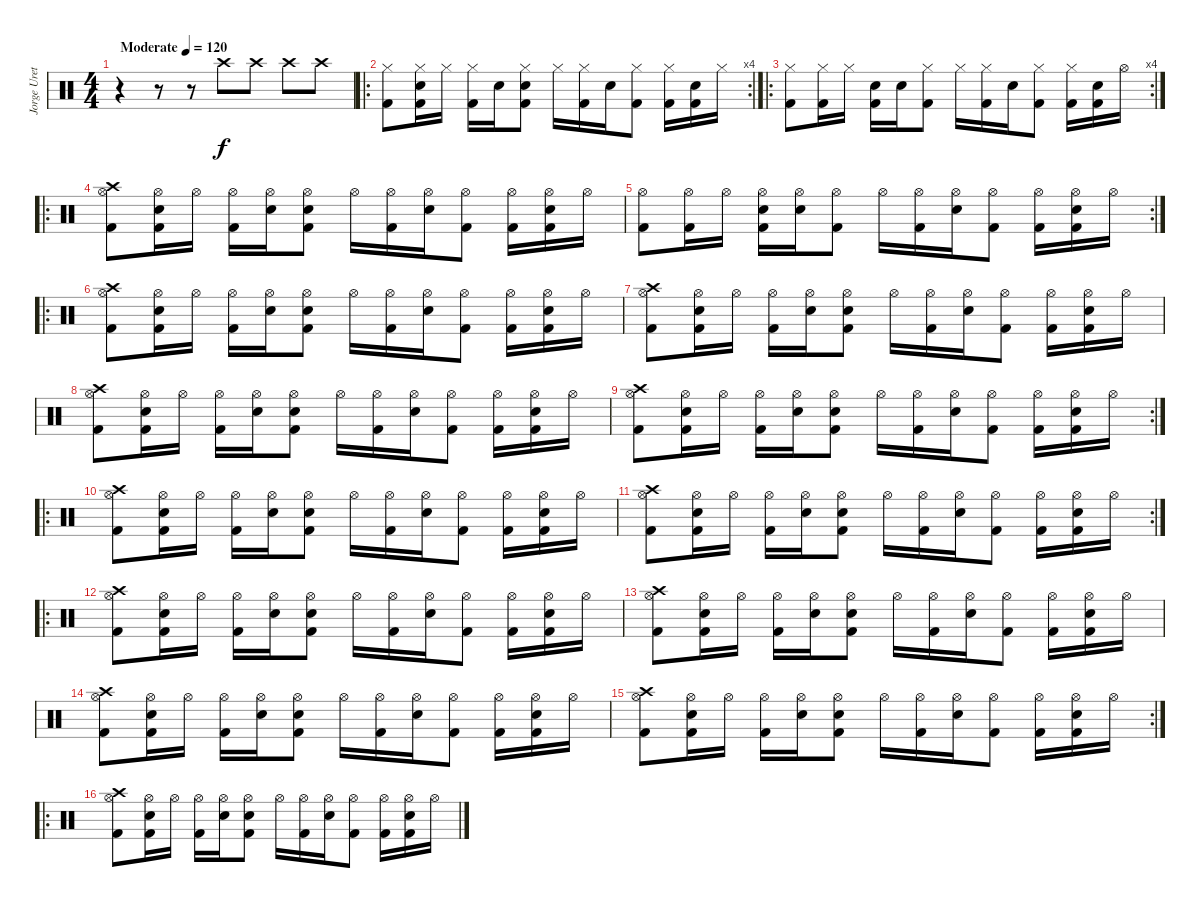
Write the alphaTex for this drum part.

\track ("Jorge Ureta" "Jorge Uret") {instrument percussion}
\staff {score}
\articulation defaults
\ts (4 4)
\tempo (120 "Moderate")
\clef neutral
\ks c
r.4{dy f} r.8 r.8 "Crash high (hit)".8 "Crash high (hit)".8 "Crash high (hit)".8 "Crash high (hit)".8 |
\ro
\rc 4
("Hi-Hat (closed)" "Kick (hit) 2").8 ("Hi-Hat (closed)" "Electric Snare (hit)" "Kick (hit) 2").16 "Hi-Hat (closed)".16 ("Hi-Hat (closed)" "Kick (hit) 2").16 "Electric Snare (hit)".16 ("Hi-Hat (closed)" "Electric Snare (hit)" "Kick (hit) 2").8 "Hi-Hat (closed)".16 ("Hi-Hat (closed)" "Kick (hit) 2").16 "Electric Snare (hit)".16 ("Hi-Hat (closed)" "Kick (hit) 2").8 ("Hi-Hat (closed)" "Kick (hit) 2").16 ("Electric Snare (hit)" "Kick (hit) 2").16 "Hi-Hat (closed)".16 |
\ro
\rc 4
("Hi-Hat (closed)" "Kick (hit) 2").8 ("Hi-Hat (closed)" "Kick (hit) 2").16 "Hi-Hat (closed)".16 ("Electric Snare (hit)" "Kick (hit) 2").16 "Electric Snare (hit)".16 ("Hi-Hat (closed)" "Kick (hit) 2").8 "Hi-Hat (closed)".16 ("Hi-Hat (closed)" "Kick (hit) 2").16 "Electric Snare (hit)".16 ("Hi-Hat (closed)" "Kick (hit) 2").8 ("Hi-Hat (closed)" "Kick (hit) 2").16 ("Electric Snare (hit)" "Kick (hit) 2").16 "Hi-Hat (open)".16 |
\ro
("Crash high (hit)" "Hi-Hat (open)" "Kick (hit) 2").8 ("Hi-Hat (open)" "Electric Snare (hit)" "Kick (hit) 2").16 "Hi-Hat (open)".16 ("Hi-Hat (open)" "Kick (hit) 2").16 ("Hi-Hat (open)" "Electric Snare (hit)").16 ("Hi-Hat (open)" "Electric Snare (hit)" "Kick (hit) 2").8 "Hi-Hat (open)".16 ("Hi-Hat (open)" "Kick (hit) 2").16 ("Hi-Hat (open)" "Electric Snare (hit)").16 ("Hi-Hat (open)" "Kick (hit) 2").8 ("Hi-Hat (open)" "Kick (hit) 2").16 ("Hi-Hat (open)" "Electric Snare (hit)" "Kick (hit) 2").16 "Hi-Hat (open)".16 |
\rc 2
("Hi-Hat (open)" "Kick (hit) 2").8 ("Hi-Hat (open)" "Kick (hit) 2").16 "Hi-Hat (open)".16 ("Hi-Hat (open)" "Electric Snare (hit)" "Kick (hit) 2").16 ("Hi-Hat (open)" "Electric Snare (hit)").16 ("Hi-Hat (open)" "Kick (hit) 2").8 "Hi-Hat (open)".16 ("Hi-Hat (open)" "Kick (hit) 2").16 ("Hi-Hat (open)" "Electric Snare (hit)").16 ("Hi-Hat (open)" "Kick (hit) 2").8 ("Hi-Hat (open)" "Kick (hit) 2").16 ("Hi-Hat (open)" "Electric Snare (hit)" "Kick (hit) 2").16 "Hi-Hat (open)".16 |
\ro
("Crash high (hit)" "Hi-Hat (open)" "Kick (hit) 2").8 ("Hi-Hat (open)" "Electric Snare (hit)" "Kick (hit) 2").16 "Hi-Hat (open)".16 ("Hi-Hat (open)" "Kick (hit) 2").16 ("Hi-Hat (open)" "Electric Snare (hit)").16 ("Hi-Hat (open)" "Electric Snare (hit)" "Kick (hit) 2").8 "Hi-Hat (open)".16 ("Hi-Hat (open)" "Kick (hit) 2").16 ("Hi-Hat (open)" "Electric Snare (hit)").16 ("Hi-Hat (open)" "Kick (hit) 2").8 ("Hi-Hat (open)" "Kick (hit) 2").16 ("Hi-Hat (open)" "Electric Snare (hit)" "Kick (hit) 2").16 "Hi-Hat (open)".16 |
("Crash high (hit)" "Hi-Hat (open)" "Kick (hit) 2").8 ("Hi-Hat (open)" "Electric Snare (hit)" "Kick (hit) 2").16 "Hi-Hat (open)".16 ("Hi-Hat (open)" "Kick (hit) 2").16 ("Hi-Hat (open)" "Electric Snare (hit)").16 ("Hi-Hat (open)" "Electric Snare (hit)" "Kick (hit) 2").8 "Hi-Hat (open)".16 ("Hi-Hat (open)" "Kick (hit) 2").16 ("Hi-Hat (open)" "Electric Snare (hit)").16 ("Hi-Hat (open)" "Kick (hit) 2").8 ("Hi-Hat (open)" "Kick (hit) 2").16 ("Hi-Hat (open)" "Electric Snare (hit)" "Kick (hit) 2").16 "Hi-Hat (open)".16 |
("Crash high (hit)" "Hi-Hat (open)" "Kick (hit) 2").8 ("Hi-Hat (open)" "Electric Snare (hit)" "Kick (hit) 2").16 "Hi-Hat (open)".16 ("Hi-Hat (open)" "Kick (hit) 2").16 ("Hi-Hat (open)" "Electric Snare (hit)").16 ("Hi-Hat (open)" "Electric Snare (hit)" "Kick (hit) 2").8 "Hi-Hat (open)".16 ("Hi-Hat (open)" "Kick (hit) 2").16 ("Hi-Hat (open)" "Electric Snare (hit)").16 ("Hi-Hat (open)" "Kick (hit) 2").8 ("Hi-Hat (open)" "Kick (hit) 2").16 ("Hi-Hat (open)" "Electric Snare (hit)" "Kick (hit) 2").16 "Hi-Hat (open)".16 |
\rc 2
("Crash high (hit)" "Hi-Hat (open)" "Kick (hit) 2").8 ("Hi-Hat (open)" "Electric Snare (hit)" "Kick (hit) 2").16 "Hi-Hat (open)".16 ("Hi-Hat (open)" "Kick (hit) 2").16 ("Hi-Hat (open)" "Electric Snare (hit)").16 ("Hi-Hat (open)" "Electric Snare (hit)" "Kick (hit) 2").8 "Hi-Hat (open)".16 ("Hi-Hat (open)" "Kick (hit) 2").16 ("Hi-Hat (open)" "Electric Snare (hit)").16 ("Hi-Hat (open)" "Kick (hit) 2").8 ("Hi-Hat (open)" "Kick (hit) 2").16 ("Hi-Hat (open)" "Electric Snare (hit)" "Kick (hit) 2").16 "Hi-Hat (open)".16 |
\ro
("Crash high (hit)" "Hi-Hat (open)" "Kick (hit) 2").8 ("Hi-Hat (open)" "Electric Snare (hit)" "Kick (hit) 2").16 "Hi-Hat (open)".16 ("Hi-Hat (open)" "Kick (hit) 2").16 ("Hi-Hat (open)" "Electric Snare (hit)").16 ("Hi-Hat (open)" "Electric Snare (hit)" "Kick (hit) 2").8 "Hi-Hat (open)".16 ("Hi-Hat (open)" "Kick (hit) 2").16 ("Hi-Hat (open)" "Electric Snare (hit)").16 ("Hi-Hat (open)" "Kick (hit) 2").8 ("Hi-Hat (open)" "Kick (hit) 2").16 ("Hi-Hat (open)" "Electric Snare (hit)" "Kick (hit) 2").16 "Hi-Hat (open)".16 |
\rc 2
("Crash high (hit)" "Hi-Hat (open)" "Kick (hit) 2").8 ("Hi-Hat (open)" "Electric Snare (hit)" "Kick (hit) 2").16 "Hi-Hat (open)".16 ("Hi-Hat (open)" "Kick (hit) 2").16 ("Hi-Hat (open)" "Electric Snare (hit)").16 ("Hi-Hat (open)" "Electric Snare (hit)" "Kick (hit) 2").8 "Hi-Hat (open)".16 ("Hi-Hat (open)" "Kick (hit) 2").16 ("Hi-Hat (open)" "Electric Snare (hit)").16 ("Hi-Hat (open)" "Kick (hit) 2").8 ("Hi-Hat (open)" "Kick (hit) 2").16 ("Hi-Hat (open)" "Electric Snare (hit)" "Kick (hit) 2").16 "Hi-Hat (open)".16 |
\ro
("Crash high (hit)" "Hi-Hat (open)" "Kick (hit) 2").8 ("Hi-Hat (open)" "Electric Snare (hit)" "Kick (hit) 2").16 "Hi-Hat (open)".16 ("Hi-Hat (open)" "Kick (hit) 2").16 ("Hi-Hat (open)" "Electric Snare (hit)").16 ("Hi-Hat (open)" "Electric Snare (hit)" "Kick (hit) 2").8 "Hi-Hat (open)".16 ("Hi-Hat (open)" "Kick (hit) 2").16 ("Hi-Hat (open)" "Electric Snare (hit)").16 ("Hi-Hat (open)" "Kick (hit) 2").8 ("Hi-Hat (open)" "Kick (hit) 2").16 ("Hi-Hat (open)" "Electric Snare (hit)" "Kick (hit) 2").16 "Hi-Hat (open)".16 |
("Crash high (hit)" "Hi-Hat (open)" "Kick (hit) 2").8 ("Hi-Hat (open)" "Electric Snare (hit)" "Kick (hit) 2").16 "Hi-Hat (open)".16 ("Hi-Hat (open)" "Kick (hit) 2").16 ("Hi-Hat (open)" "Electric Snare (hit)").16 ("Hi-Hat (open)" "Electric Snare (hit)" "Kick (hit) 2").8 "Hi-Hat (open)".16 ("Hi-Hat (open)" "Kick (hit) 2").16 ("Hi-Hat (open)" "Electric Snare (hit)").16 ("Hi-Hat (open)" "Kick (hit) 2").8 ("Hi-Hat (open)" "Kick (hit) 2").16 ("Hi-Hat (open)" "Electric Snare (hit)" "Kick (hit) 2").16 "Hi-Hat (open)".16 |
("Crash high (hit)" "Hi-Hat (open)" "Kick (hit) 2").8 ("Hi-Hat (open)" "Electric Snare (hit)" "Kick (hit) 2").16 "Hi-Hat (open)".16 ("Hi-Hat (open)" "Kick (hit) 2").16 ("Hi-Hat (open)" "Electric Snare (hit)").16 ("Hi-Hat (open)" "Electric Snare (hit)" "Kick (hit) 2").8 "Hi-Hat (open)".16 ("Hi-Hat (open)" "Kick (hit) 2").16 ("Hi-Hat (open)" "Electric Snare (hit)").16 ("Hi-Hat (open)" "Kick (hit) 2").8 ("Hi-Hat (open)" "Kick (hit) 2").16 ("Hi-Hat (open)" "Electric Snare (hit)" "Kick (hit) 2").16 "Hi-Hat (open)".16 |
\rc 2
("Crash high (hit)" "Hi-Hat (open)" "Kick (hit) 2").8 ("Hi-Hat (open)" "Electric Snare (hit)" "Kick (hit) 2").16 "Hi-Hat (open)".16 ("Hi-Hat (open)" "Kick (hit) 2").16 ("Hi-Hat (open)" "Electric Snare (hit)").16 ("Hi-Hat (open)" "Electric Snare (hit)" "Kick (hit) 2").8 "Hi-Hat (open)".16 ("Hi-Hat (open)" "Kick (hit) 2").16 ("Hi-Hat (open)" "Electric Snare (hit)").16 ("Hi-Hat (open)" "Kick (hit) 2").8 ("Hi-Hat (open)" "Kick (hit) 2").16 ("Hi-Hat (open)" "Electric Snare (hit)" "Kick (hit) 2").16 "Hi-Hat (open)".16 |
\ro
("Crash high (hit)" "Hi-Hat (open)" "Kick (hit) 2").8 ("Hi-Hat (open)" "Electric Snare (hit)" "Kick (hit) 2").16 "Hi-Hat (open)".16 ("Hi-Hat (open)" "Kick (hit) 2").16 ("Hi-Hat (open)" "Electric Snare (hit)").16 ("Hi-Hat (open)" "Electric Snare (hit)" "Kick (hit) 2").8 "Hi-Hat (open)".16 ("Hi-Hat (open)" "Kick (hit) 2").16 ("Hi-Hat (open)" "Electric Snare (hit)").16 ("Hi-Hat (open)" "Kick (hit) 2").8 ("Hi-Hat (open)" "Kick (hit) 2").16 ("Hi-Hat (open)" "Electric Snare (hit)" "Kick (hit) 2").16 "Hi-Hat (open)".16
